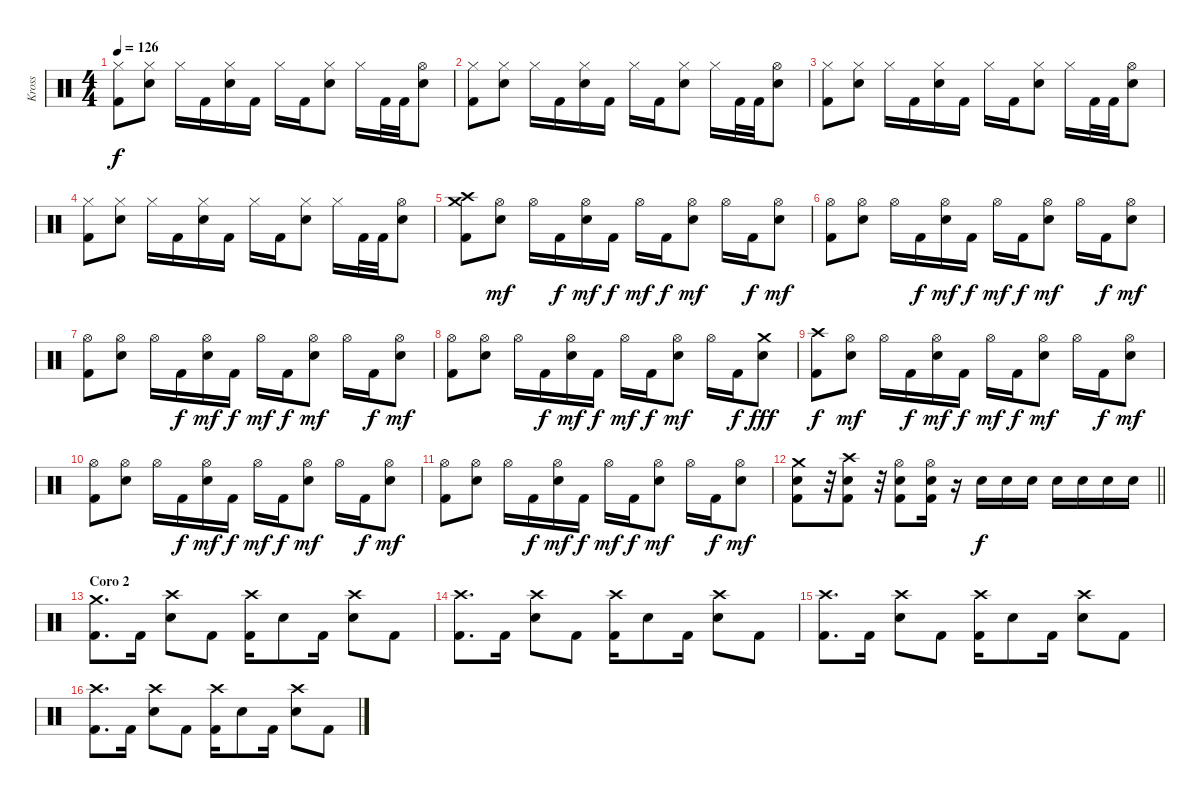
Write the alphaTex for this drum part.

\track ("Kross" "Kross") {instrument percussion}
\staff {score}
\articulation defaults
\ts (4 4)
\tempo 126
\clef neutral
\ks c
("Hi-Hat (closed)" "Kick (hit) 2").8{dy f} ("Hi-Hat (closed)" "Electric Snare (hit)").8 "Hi-Hat (closed)".16 "Kick (hit) 2".16 ("Hi-Hat (closed)" "Electric Snare (hit)").16 "Kick (hit) 2".16 "Hi-Hat (closed)".16 "Kick (hit) 2".16 ("Hi-Hat (closed)" "Electric Snare (hit)").8 "Hi-Hat (closed)".16 "Kick (hit) 2".32 "Kick (hit) 2".32 ("Hi-Hat (open)" "Electric Snare (hit)").8 |
("Hi-Hat (closed)" "Kick (hit) 2").8 ("Hi-Hat (closed)" "Electric Snare (hit)").8 "Hi-Hat (closed)".16 "Kick (hit) 2".16 ("Hi-Hat (closed)" "Electric Snare (hit)").16 "Kick (hit) 2".16 "Hi-Hat (closed)".16 "Kick (hit) 2".16 ("Hi-Hat (closed)" "Electric Snare (hit)").8 "Hi-Hat (closed)".16 "Kick (hit) 2".32 "Kick (hit) 2".32 ("Hi-Hat (open)" "Electric Snare (hit)").8 |
("Hi-Hat (closed)" "Kick (hit) 2").8 ("Hi-Hat (closed)" "Electric Snare (hit)").8 "Hi-Hat (closed)".16 "Kick (hit) 2".16 ("Hi-Hat (closed)" "Electric Snare (hit)").16 "Kick (hit) 2".16 "Hi-Hat (closed)".16 "Kick (hit) 2".16 ("Hi-Hat (closed)" "Electric Snare (hit)").8 "Hi-Hat (closed)".16 "Kick (hit) 2".32 "Kick (hit) 2".32 ("Hi-Hat (open)" "Electric Snare (hit)").8 |
("Hi-Hat (closed)" "Kick (hit) 2").8 ("Hi-Hat (closed)" "Electric Snare (hit)").8 "Hi-Hat (closed)".16 "Kick (hit) 2".16 ("Hi-Hat (closed)" "Electric Snare (hit)").16 "Kick (hit) 2".16 "Hi-Hat (closed)".16 "Kick (hit) 2".16 ("Hi-Hat (closed)" "Electric Snare (hit)").8 "Hi-Hat (closed)".16 "Kick (hit) 2".32 "Kick (hit) 2".32 ("Hi-Hat (open)" "Electric Snare (hit)").8 |
("Crash high (hit)" "Crash medium (hit)" "Kick (hit) 2").8 ("Hi-Hat (open)" "Electric Snare (hit)").8{dy mf} "Hi-Hat (open)".16 "Kick (hit) 2".16{dy f} ("Hi-Hat (open)" "Electric Snare (hit)").16{dy mf} "Kick (hit) 2".16{dy f} "Hi-Hat (open)".16{dy mf} "Kick (hit) 2".16{dy f} ("Hi-Hat (open)" "Electric Snare (hit)").8{dy mf} "Hi-Hat (open)".16 "Kick (hit) 2".16{dy f} ("Hi-Hat (open)" "Electric Snare (hit)").8{dy mf} |
("Hi-Hat (open)" "Kick (hit) 2").8 ("Hi-Hat (open)" "Electric Snare (hit)").8 "Hi-Hat (open)".16 "Kick (hit) 2".16{dy f} ("Hi-Hat (open)" "Electric Snare (hit)").16{dy mf} "Kick (hit) 2".16{dy f} "Hi-Hat (open)".16{dy mf} "Kick (hit) 2".16{dy f} ("Hi-Hat (open)" "Electric Snare (hit)").8{dy mf} "Hi-Hat (open)".16 "Kick (hit) 2".16{dy f} ("Hi-Hat (open)" "Electric Snare (hit)").8{dy mf} |
("Hi-Hat (open)" "Kick (hit) 2").8 ("Hi-Hat (open)" "Electric Snare (hit)").8 "Hi-Hat (open)".16 "Kick (hit) 2".16{dy f} ("Hi-Hat (open)" "Electric Snare (hit)").16{dy mf} "Kick (hit) 2".16{dy f} "Hi-Hat (open)".16{dy mf} "Kick (hit) 2".16{dy f} ("Hi-Hat (open)" "Electric Snare (hit)").8{dy mf} "Hi-Hat (open)".16 "Kick (hit) 2".16{dy f} ("Hi-Hat (open)" "Electric Snare (hit)").8{dy mf} |
("Hi-Hat (open)" "Kick (hit) 2").8 ("Hi-Hat (open)" "Electric Snare (hit)").8 "Hi-Hat (open)".16 "Kick (hit) 2".16{dy f} ("Hi-Hat (open)" "Electric Snare (hit)").16{dy mf} "Kick (hit) 2".16{dy f} "Hi-Hat (open)".16{dy mf} "Kick (hit) 2".16{dy f} ("Hi-Hat (open)" "Electric Snare (hit)").8{dy mf} "Hi-Hat (open)".16 "Kick (hit) 2".16{dy f} ("Crash medium (hit)" "Electric Snare (hit)").8{dy fff} |
("Crash high (hit)" "Kick (hit) 2").8{dy f} ("Hi-Hat (open)" "Electric Snare (hit)").8{dy mf} "Hi-Hat (open)".16 "Kick (hit) 2".16{dy f} ("Hi-Hat (open)" "Electric Snare (hit)").16{dy mf} "Kick (hit) 2".16{dy f} "Hi-Hat (open)".16{dy mf} "Kick (hit) 2".16{dy f} ("Hi-Hat (open)" "Electric Snare (hit)").8{dy mf} "Hi-Hat (open)".16 "Kick (hit) 2".16{dy f} ("Hi-Hat (open)" "Electric Snare (hit)").8{dy mf} |
("Hi-Hat (open)" "Kick (hit) 2").8 ("Hi-Hat (open)" "Electric Snare (hit)").8 "Hi-Hat (open)".16 "Kick (hit) 2".16{dy f} ("Hi-Hat (open)" "Electric Snare (hit)").16{dy mf} "Kick (hit) 2".16{dy f} "Hi-Hat (open)".16{dy mf} "Kick (hit) 2".16{dy f} ("Hi-Hat (open)" "Electric Snare (hit)").8{dy mf} "Hi-Hat (open)".16 "Kick (hit) 2".16{dy f} ("Hi-Hat (open)" "Electric Snare (hit)").8{dy mf} |
("Hi-Hat (open)" "Kick (hit) 2").8 ("Hi-Hat (open)" "Electric Snare (hit)").8 "Hi-Hat (open)".16 "Kick (hit) 2".16{dy f} ("Hi-Hat (open)" "Electric Snare (hit)").16{dy mf} "Kick (hit) 2".16{dy f} "Hi-Hat (open)".16{dy mf} "Kick (hit) 2".16{dy f} ("Hi-Hat (open)" "Electric Snare (hit)").8{dy mf} "Hi-Hat (open)".16 "Kick (hit) 2".16{dy f} ("Hi-Hat (open)" "Electric Snare (hit)").8{dy mf} |
\barLineRight lightlight
("Crash medium (hit)" "Electric Snare (hit)" "Kick (hit) 2").8 r.32 ("Crash high (hit)" "Electric Snare (hit)" "Kick (hit) 2").8 r.32 ("Hi-Hat (open)" "Electric Snare (hit)" "Kick (hit) 2").8 ("Hi-Hat (open)" "Electric Snare (hit)" "Kick (hit) 2").16 r.16 "Electric Snare (hit)".16{dy f} "Electric Snare (hit)".16 "Electric Snare (hit)".16 "Electric Snare (hit)".16 "Electric Snare (hit)".16 "Electric Snare (hit)".16 "Electric Snare (hit)".16 |
\section ("" "Coro 2")
("Crash medium (hit)" "Kick (hit) 2").8{d} "Kick (hit) 2".16 ("Crash high (hit)" "Electric Snare (hit)").8 "Kick (hit) 2".8 ("Crash high (hit)" "Kick (hit) 2").16 "Electric Snare (hit)".8 "Kick (hit) 2".16 ("Crash high (hit)" "Electric Snare (hit)").8 "Kick (hit) 2".8 |
("Crash high (hit)" "Kick (hit) 2").8{d} "Kick (hit) 2".16 ("Crash high (hit)" "Electric Snare (hit)").8 "Kick (hit) 2".8 ("Crash high (hit)" "Kick (hit) 2").16 "Electric Snare (hit)".8 "Kick (hit) 2".16 ("Crash high (hit)" "Electric Snare (hit)").8 "Kick (hit) 2".8 |
("Crash high (hit)" "Kick (hit) 2").8{d} "Kick (hit) 2".16 ("Crash high (hit)" "Electric Snare (hit)").8 "Kick (hit) 2".8 ("Crash high (hit)" "Kick (hit) 2").16 "Electric Snare (hit)".8 "Kick (hit) 2".16 ("Crash high (hit)" "Electric Snare (hit)").8 "Kick (hit) 2".8 |
("Crash high (hit)" "Kick (hit) 2").8{d} "Kick (hit) 2".16 ("Crash high (hit)" "Electric Snare (hit)").8 "Kick (hit) 2".8 ("Crash high (hit)" "Kick (hit) 2").16 "Electric Snare (hit)".8 "Kick (hit) 2".16 ("Crash high (hit)" "Electric Snare (hit)").8 "Kick (hit) 2".8
